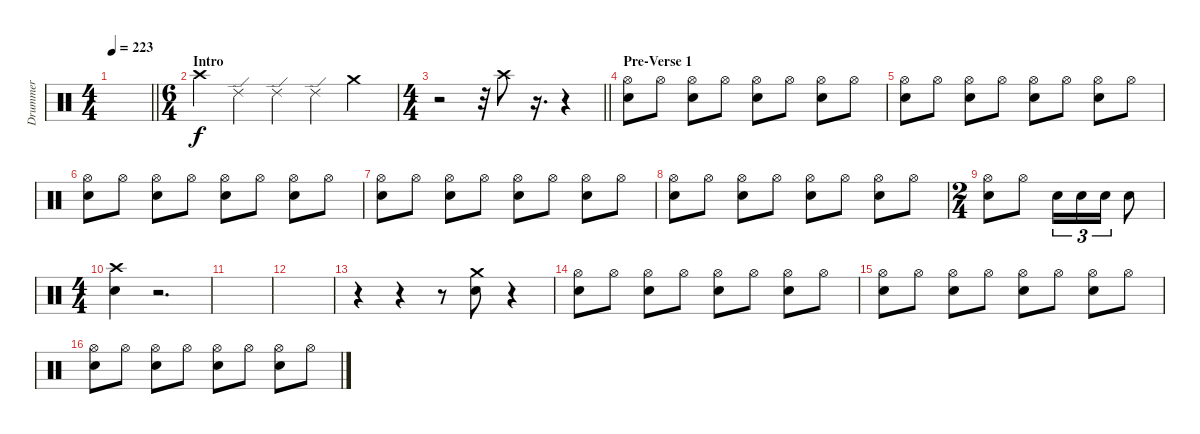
\track ("Drummer" "Drummer") {instrument percussion}
\staff {score}
\articulation defaults
\ts (4 4)
\tempo 223
\clef neutral
\barLineRight lightlight
\ks c
|
\ts (6 4)
\section ("" "Intro")
"Crash high (hit)".4 "Ride (edge) 2".4 "Ride (edge) 2".4 "Ride (edge) 2".4 "Crash medium (hit)".2 |
\ts (4 4)
\barLineRight lightlight
r.2 r.32 "Crash high (hit)".8 r.16{d} r.4 |
\section ("" "Pre-Verse 1")
("Hi-Hat (open)" "Electric Snare (hit)").8 "Hi-Hat (open)".8 ("Hi-Hat (open)" "Electric Snare (hit)").8 "Hi-Hat (open)".8 ("Hi-Hat (open)" "Electric Snare (hit)").8 "Hi-Hat (open)".8 ("Hi-Hat (open)" "Electric Snare (hit)").8 "Hi-Hat (open)".8 |
("Hi-Hat (open)" "Electric Snare (hit)").8 "Hi-Hat (open)".8 ("Hi-Hat (open)" "Electric Snare (hit)").8 "Hi-Hat (open)".8 ("Hi-Hat (open)" "Electric Snare (hit)").8 "Hi-Hat (open)".8 ("Hi-Hat (open)" "Electric Snare (hit)").8 "Hi-Hat (open)".8 |
("Hi-Hat (open)" "Electric Snare (hit)").8 "Hi-Hat (open)".8 ("Hi-Hat (open)" "Electric Snare (hit)").8 "Hi-Hat (open)".8 ("Hi-Hat (open)" "Electric Snare (hit)").8 "Hi-Hat (open)".8 ("Hi-Hat (open)" "Electric Snare (hit)").8 "Hi-Hat (open)".8 |
("Hi-Hat (open)" "Electric Snare (hit)").8 "Hi-Hat (open)".8 ("Hi-Hat (open)" "Electric Snare (hit)").8 "Hi-Hat (open)".8 ("Hi-Hat (open)" "Electric Snare (hit)").8 "Hi-Hat (open)".8 ("Hi-Hat (open)" "Electric Snare (hit)").8 "Hi-Hat (open)".8 |
("Hi-Hat (open)" "Electric Snare (hit)").8 "Hi-Hat (open)".8 ("Hi-Hat (open)" "Electric Snare (hit)").8 "Hi-Hat (open)".8 ("Hi-Hat (open)" "Electric Snare (hit)").8 "Hi-Hat (open)".8 ("Hi-Hat (open)" "Electric Snare (hit)").8 "Hi-Hat (open)".8 |
\ts (2 4)
("Hi-Hat (open)" "Electric Snare (hit)").8 "Hi-Hat (open)".8 "Electric Snare (hit)".16{tu (3 2)} "Electric Snare (hit)".16{tu (3 2)} "Electric Snare (hit)".16{tu (3 2)} "Electric Snare (hit)".8 |
\ts (4 4)
("Crash high (hit)" "Electric Snare (hit)").4 r.2{d} |
|
|
r.4 r.4 r.8 ("Crash medium (hit)" "Electric Snare (hit)").8 r.4 |
("Hi-Hat (open)" "Electric Snare (hit)").8 "Hi-Hat (open)".8 ("Hi-Hat (open)" "Electric Snare (hit)").8 "Hi-Hat (open)".8 ("Hi-Hat (open)" "Electric Snare (hit)").8 "Hi-Hat (open)".8 ("Hi-Hat (open)" "Electric Snare (hit)").8 "Hi-Hat (open)".8 |
("Hi-Hat (open)" "Electric Snare (hit)").8 "Hi-Hat (open)".8 ("Hi-Hat (open)" "Electric Snare (hit)").8 "Hi-Hat (open)".8 ("Hi-Hat (open)" "Electric Snare (hit)").8 "Hi-Hat (open)".8 ("Hi-Hat (open)" "Electric Snare (hit)").8 "Hi-Hat (open)".8 |
("Hi-Hat (open)" "Electric Snare (hit)").8 "Hi-Hat (open)".8 ("Hi-Hat (open)" "Electric Snare (hit)").8 "Hi-Hat (open)".8 ("Hi-Hat (open)" "Electric Snare (hit)").8 "Hi-Hat (open)".8 ("Hi-Hat (open)" "Electric Snare (hit)").8 "Hi-Hat (open)".8
